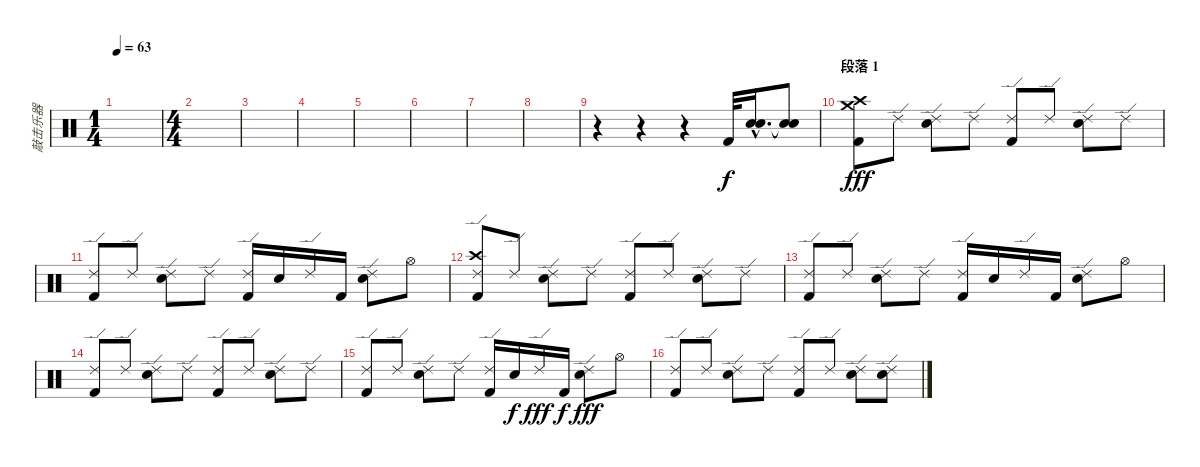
\track ("敲击乐器" "敲击乐器") {instrument percussion}
\staff {score}
\articulation defaults
\ts (1 4)
\tempo 63
\clef neutral
\ks c
|
\ts (4 4)
|
|
|
|
|
|
|
r.4 r.4 r.4 "Kick (hit) 2".32 ("Snare (hit) 2"{hac} "Electric Snare (hit)"{hac}).16{d} ("Snare (hit)"{t} "Snare (hit)"{t}).8{dy f} |
\section ("" "段落 1")
("Crash medium (hit)" "Crash high (hit)" "Kick (hit) 2").8{dy fff} "Ride (edge) 2".8 ("Ride (edge) 2" "Snare (hit) 2").8 "Ride (edge) 2".8 ("Ride (edge) 2" "Kick (hit) 2").8 "Ride (edge) 2".8 ("Ride (edge) 2" "Snare (hit) 2").8 "Ride (edge) 2".8 |
("Ride (edge) 2" "Kick (hit) 2").8 "Ride (edge) 2".8 ("Ride (edge) 2" "Snare (hit) 2").8 "Ride (edge) 2".8 ("Ride (edge) 2" "Kick (hit) 2").16 "Snare (hit) 2".16 "Ride (edge) 2".16 "Kick (hit) 2".16 ("Ride (edge) 2" "Snare (hit) 2").8 "Hi-Hat (open)".8 |
("Ride (edge) 2" "Crash high (hit)" "Kick (hit) 2").8 "Ride (edge) 2".8 ("Ride (edge) 2" "Snare (hit) 2").8 "Ride (edge) 2".8 ("Ride (edge) 2" "Kick (hit) 2").8 "Ride (edge) 2".8 ("Ride (edge) 2" "Snare (hit) 2").8 "Ride (edge) 2".8 |
("Ride (edge) 2" "Kick (hit) 2").8 "Ride (edge) 2".8 ("Ride (edge) 2" "Snare (hit) 2").8 "Ride (edge) 2".8 ("Ride (edge) 2" "Kick (hit) 2").16 "Snare (hit) 2".16 "Ride (edge) 2".16 "Kick (hit) 2".16 ("Ride (edge) 2" "Snare (hit) 2").8 "Hi-Hat (open)".8 |
("Ride (edge) 2" "Kick (hit) 2").8 "Ride (edge) 2".8 ("Ride (edge) 2" "Snare (hit) 2").8 "Ride (edge) 2".8 ("Ride (edge) 2" "Kick (hit) 2").8 "Ride (edge) 2".8 ("Ride (edge) 2" "Snare (hit) 2").8 "Ride (edge) 2".8 |
("Ride (edge) 2" "Kick (hit) 2").8 "Ride (edge) 2".8 ("Ride (edge) 2" "Snare (hit) 2").8 "Ride (edge) 2".8 ("Ride (edge) 2" "Kick (hit) 2").16 "Snare (hit) 2".16{dy f} "Ride (edge) 2".16{dy fff} "Kick (hit) 2".16{dy f} ("Ride (edge) 2" "Snare (hit) 2").8{dy fff} "Hi-Hat (open)".8 |
("Ride (edge) 2" "Kick (hit) 2").8 "Ride (edge) 2".8 ("Ride (edge) 2" "Snare (hit) 2").8 "Ride (edge) 2".8 ("Ride (edge) 2" "Kick (hit) 2").8 "Ride (edge) 2".8 ("Ride (edge) 2" "Snare (hit) 2").8 ("Ride (edge) 2" "Snare (hit) 2").8
